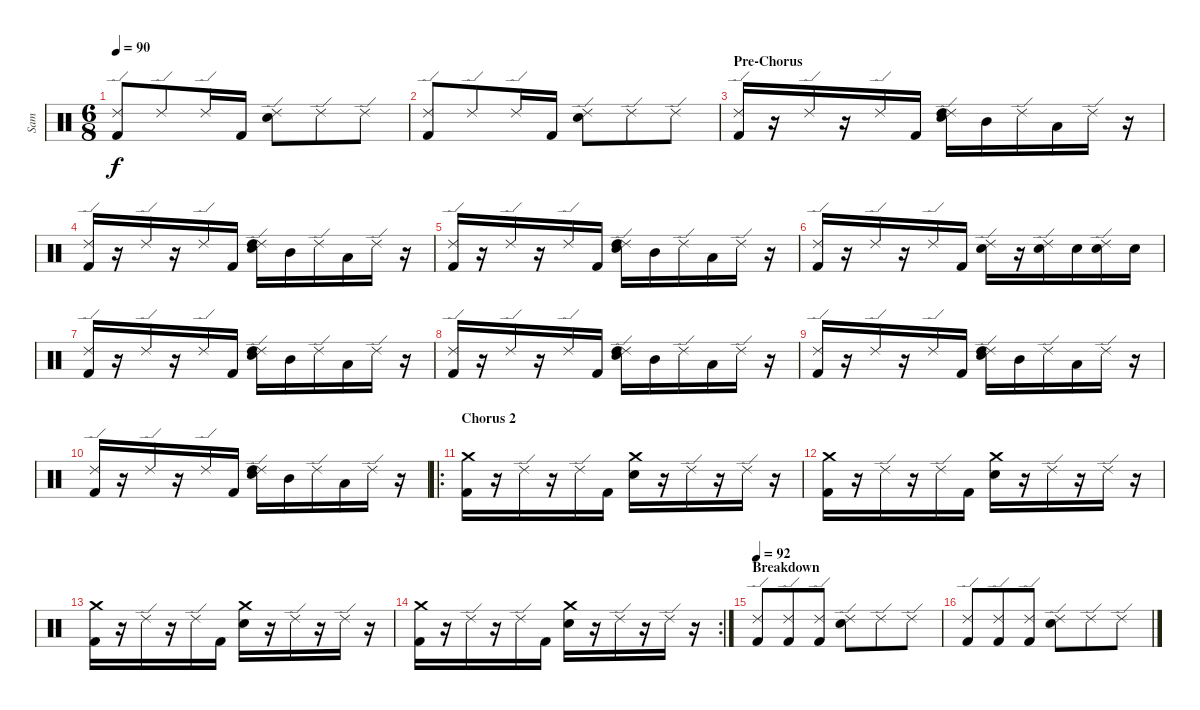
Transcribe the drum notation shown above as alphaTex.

\track ("Sam" "Sam") {instrument percussion}
\staff {score}
\articulation defaults
\ts (6 8)
\tempo 90
\clef neutral
\ks c
("Ride (edge) 2" "Kick (hit) 2").8{dy f} "Ride (edge) 2".8 "Ride (edge) 2".16 "Kick (hit) 2".16 ("Ride (edge) 2" "Snare (hit) 2").8 "Ride (edge) 2".8 "Ride (edge) 2".8 |
("Ride (edge) 2" "Kick (hit) 2").8 "Ride (edge) 2".8 "Ride (edge) 2".16 "Kick (hit) 2".16 ("Ride (edge) 2" "Snare (hit) 2").8 "Ride (edge) 2".8 "Ride (edge) 2".8 |
\section ("" "Pre-Chorus")
("Ride (edge) 2" "Kick (hit) 2").16 r.16 "Ride (edge) 2".16 r.16 "Ride (edge) 2".16 "Kick (hit) 2".16 ("Ride (edge) 2" "High Tom (hit)" "Snare (hit) 2").16 "Mid Tom (hit)".16 "Ride (edge) 2".16 "Low Tom (hit)".16 "Ride (edge) 2".16 r.16 |
("Ride (edge) 2" "Kick (hit) 2").16 r.16 "Ride (edge) 2".16 r.16 "Ride (edge) 2".16 "Kick (hit) 2".16 ("Ride (edge) 2" "High Tom (hit)" "Snare (hit) 2").16 "Mid Tom (hit)".16 "Ride (edge) 2".16 "Low Tom (hit)".16 "Ride (edge) 2".16 r.16 |
("Ride (edge) 2" "Kick (hit) 2").16 r.16 "Ride (edge) 2".16 r.16 "Ride (edge) 2".16 "Kick (hit) 2".16 ("Ride (edge) 2" "High Tom (hit)" "Snare (hit) 2").16 "Mid Tom (hit)".16 "Ride (edge) 2".16 "Low Tom (hit)".16 "Ride (edge) 2".16 r.16 |
("Ride (edge) 2" "Kick (hit) 2").16 r.16 "Ride (edge) 2".16 r.16 "Ride (edge) 2".16 "Kick (hit) 2".16 ("Ride (edge) 2" "Snare (hit) 2").16 r.16 ("Ride (edge) 2" "Snare (hit) 2").16 "Snare (hit) 2".16 ("Ride (edge) 2" "Snare (hit) 2").16 "Snare (hit) 2".16 |
("Ride (edge) 2" "Kick (hit) 2").16 r.16 "Ride (edge) 2".16 r.16 "Ride (edge) 2".16 "Kick (hit) 2".16 ("Ride (edge) 2" "High Tom (hit)" "Snare (hit) 2").16 "Mid Tom (hit)".16 "Ride (edge) 2".16 "Low Tom (hit)".16 "Ride (edge) 2".16 r.16 |
("Ride (edge) 2" "Kick (hit) 2").16 r.16 "Ride (edge) 2".16 r.16 "Ride (edge) 2".16 "Kick (hit) 2".16 ("Ride (edge) 2" "High Tom (hit)" "Snare (hit) 2").16 "Mid Tom (hit)".16 "Ride (edge) 2".16 "Low Tom (hit)".16 "Ride (edge) 2".16 r.16 |
("Ride (edge) 2" "Kick (hit) 2").16 r.16 "Ride (edge) 2".16 r.16 "Ride (edge) 2".16 "Kick (hit) 2".16 ("Ride (edge) 2" "High Tom (hit)" "Snare (hit) 2").16 "Mid Tom (hit)".16 "Ride (edge) 2".16 "Low Tom (hit)".16 "Ride (edge) 2".16 r.16 |
("Ride (edge) 2" "Kick (hit) 2").16 r.16 "Ride (edge) 2".16 r.16 "Ride (edge) 2".16 "Kick (hit) 2".16 ("Ride (edge) 2" "High Tom (hit)" "Snare (hit) 2").16 "Mid Tom (hit)".16 "Ride (edge) 2".16 "Low Tom (hit)".16 "Ride (edge) 2".16 r.16 |
\ro
\section ("" "Chorus 2")
("Crash medium (hit)" "Kick (hit) 2").16 r.16 "Ride (edge) 2".16 r.16 "Ride (edge) 2".16 "Kick (hit) 2".16 ("Crash medium (hit)" "Snare (hit) 2").16 r.16 "Ride (edge) 2".16 r.16 "Ride (edge) 2".16 r.16 |
("Crash medium (hit)" "Kick (hit) 2").16 r.16 "Ride (edge) 2".16 r.16 "Ride (edge) 2".16 "Kick (hit) 2".16 ("Crash medium (hit)" "Snare (hit) 2").16 r.16 "Ride (edge) 2".16 r.16 "Ride (edge) 2".16 r.16 |
("Crash medium (hit)" "Kick (hit) 2").16 r.16 "Ride (edge) 2".16 r.16 "Ride (edge) 2".16 "Kick (hit) 2".16 ("Crash medium (hit)" "Snare (hit) 2").16 r.16 "Ride (edge) 2".16 r.16 "Ride (edge) 2".16 r.16 |
\rc 2
("Crash medium (hit)" "Kick (hit) 2").16 r.16 "Ride (edge) 2".16 r.16 "Ride (edge) 2".16 "Kick (hit) 2".16 ("Crash medium (hit)" "Snare (hit) 2").16 r.16 "Ride (edge) 2".16 r.16 "Ride (edge) 2".16 r.16 |
\section ("" "Breakdown")
\tempo 92
("Ride (edge) 2" "Kick (hit) 2").8 ("Ride (edge) 2" "Kick (hit) 2").8 ("Ride (edge) 2" "Kick (hit) 2").8 ("Ride (edge) 2" "Snare (hit) 2").8 "Ride (edge) 2".8 "Ride (edge) 2".8 |
("Ride (edge) 2" "Kick (hit) 2").8 ("Ride (edge) 2" "Kick (hit) 2").8 ("Ride (edge) 2" "Kick (hit) 2").8 ("Ride (edge) 2" "Snare (hit) 2").8 "Ride (edge) 2".8 "Ride (edge) 2".8
